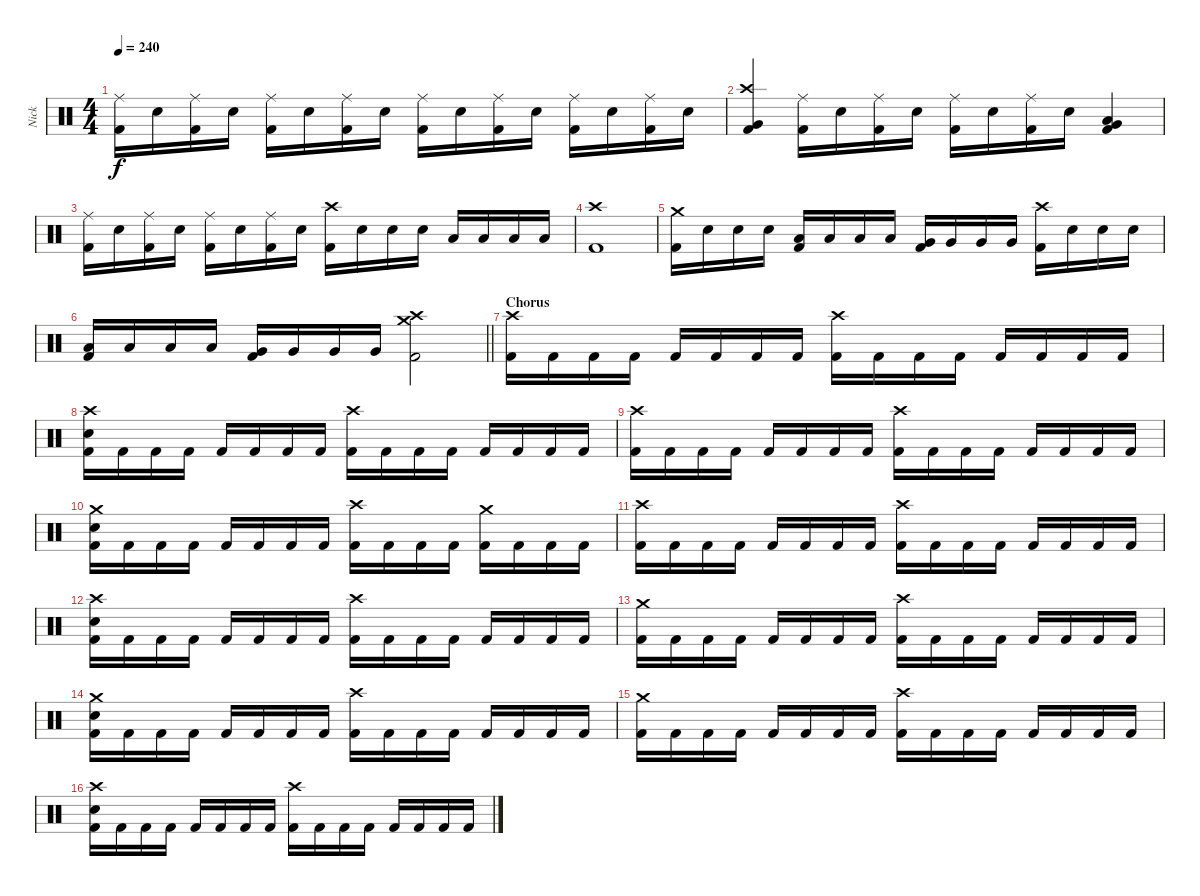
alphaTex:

\track ("Nick" "Nick") {instrument percussion}
\staff {score}
\articulation defaults
\ts (4 4)
\tempo 240
\clef neutral
\ks c
("Ride (middle)" "Kick (hit) 2").16{dy f} "Electric Snare (hit)".16 ("Ride (middle)" "Kick (hit) 2").16 "Electric Snare (hit)".16 ("Ride (middle)" "Kick (hit) 2").16 "Electric Snare (hit)".16 ("Ride (middle)" "Kick (hit) 2").16 "Electric Snare (hit)".16 ("Ride (middle)" "Kick (hit) 2").16 "Electric Snare (hit)".16 ("Ride (middle)" "Kick (hit) 2").16 "Electric Snare (hit)".16 ("Ride (middle)" "Kick (hit) 2").16 "Electric Snare (hit)".16 ("Ride (middle)" "Kick (hit) 2").16 "Electric Snare (hit)".16 |
("Crash high (hit)" "Very Low Tom (hit)" "Kick (hit) 2").4 ("Ride (middle)" "Kick (hit) 2").16 "Electric Snare (hit)".16 ("Ride (middle)" "Kick (hit) 2").16 "Electric Snare (hit)".16 ("Ride (middle)" "Kick (hit) 2").16 "Electric Snare (hit)".16 ("Ride (middle)" "Kick (hit) 2").16 "Electric Snare (hit)".16 ("Low Tom (hit)" "Very Low Tom (hit)" "Kick (hit) 2").4 |
("Ride (middle)" "Kick (hit) 2").16 "Electric Snare (hit)".16 ("Ride (middle)" "Kick (hit) 2").16 "Electric Snare (hit)".16 ("Ride (middle)" "Kick (hit) 2").16 "Electric Snare (hit)".16 ("Ride (middle)" "Kick (hit) 2").16 "Electric Snare (hit)".16 ("Crash high (hit)" "Kick (hit) 2").16 "Electric Snare (hit)".16 "Electric Snare (hit)".16 "Electric Snare (hit)".16 "Low Tom (hit)".16 "Low Tom (hit)".16 "Low Tom (hit)".16 "Low Tom (hit)".16 |
("Crash high (hit)" "Kick (hit) 2").1 |
("Crash medium (hit)" "Kick (hit) 2").16 "Electric Snare (hit)".16 "Electric Snare (hit)".16 "Electric Snare (hit)".16 ("Low Tom (hit)" "Kick (hit) 2").16 "Low Tom (hit)".16 "Low Tom (hit)".16 "Low Tom (hit)".16 ("Very Low Tom (hit)" "Kick (hit) 2").16 "Very Low Tom (hit)".16 "Very Low Tom (hit)".16 "Very Low Tom (hit)".16 ("Crash high (hit)" "Kick (hit) 2").16 "Electric Snare (hit)".16 "Electric Snare (hit)".16 "Electric Snare (hit)".16 |
\barLineRight lightlight
("Low Tom (hit)" "Kick (hit) 2").16 "Low Tom (hit)".16 "Low Tom (hit)".16 "Low Tom (hit)".16 ("Very Low Tom (hit)" "Kick (hit) 2").16 "Very Low Tom (hit)".16 "Very Low Tom (hit)".16 "Very Low Tom (hit)".16 ("Crash medium (hit)" "Crash high (hit)" "Kick (hit) 2").2 |
\section ("" "Chorus")
("Crash high (hit)" "Kick (hit) 2").16 "Kick (hit) 2".16 "Kick (hit) 2".16 "Kick (hit) 2".16 "Kick (hit) 2".16 "Kick (hit) 2".16 "Kick (hit) 2".16 "Kick (hit) 2".16 ("Crash high (hit)" "Kick (hit) 2").16 "Kick (hit) 2".16 "Kick (hit) 2".16 "Kick (hit) 2".16 "Kick (hit) 2".16 "Kick (hit) 2".16 "Kick (hit) 2".16 "Kick (hit) 2".16 |
("Crash high (hit)" "Electric Snare (hit)" "Kick (hit) 2").16 "Kick (hit) 2".16 "Kick (hit) 2".16 "Kick (hit) 2".16 "Kick (hit) 2".16 "Kick (hit) 2".16 "Kick (hit) 2".16 "Kick (hit) 2".16 ("Crash high (hit)" "Kick (hit) 2").16 "Kick (hit) 2".16 "Kick (hit) 2".16 "Kick (hit) 2".16 "Kick (hit) 2".16 "Kick (hit) 2".16 "Kick (hit) 2".16 "Kick (hit) 2".16 |
("Crash high (hit)" "Kick (hit) 2").16 "Kick (hit) 2".16 "Kick (hit) 2".16 "Kick (hit) 2".16 "Kick (hit) 2".16 "Kick (hit) 2".16 "Kick (hit) 2".16 "Kick (hit) 2".16 ("Crash high (hit)" "Kick (hit) 2").16 "Kick (hit) 2".16 "Kick (hit) 2".16 "Kick (hit) 2".16 "Kick (hit) 2".16 "Kick (hit) 2".16 "Kick (hit) 2".16 "Kick (hit) 2".16 |
("Crash medium (hit)" "Electric Snare (hit)" "Kick (hit) 2").16 "Kick (hit) 2".16 "Kick (hit) 2".16 "Kick (hit) 2".16 "Kick (hit) 2".16 "Kick (hit) 2".16 "Kick (hit) 2".16 "Kick (hit) 2".16 ("Crash high (hit)" "Kick (hit) 2").16 "Kick (hit) 2".16 "Kick (hit) 2".16 "Kick (hit) 2".16 ("Crash medium (hit)" "Kick (hit) 2").16 "Kick (hit) 2".16 "Kick (hit) 2".16 "Kick (hit) 2".16 |
("Crash high (hit)" "Kick (hit) 2").16 "Kick (hit) 2".16 "Kick (hit) 2".16 "Kick (hit) 2".16 "Kick (hit) 2".16 "Kick (hit) 2".16 "Kick (hit) 2".16 "Kick (hit) 2".16 ("Crash high (hit)" "Kick (hit) 2").16 "Kick (hit) 2".16 "Kick (hit) 2".16 "Kick (hit) 2".16 "Kick (hit) 2".16 "Kick (hit) 2".16 "Kick (hit) 2".16 "Kick (hit) 2".16 |
("Crash high (hit)" "Electric Snare (hit)" "Kick (hit) 2").16 "Kick (hit) 2".16 "Kick (hit) 2".16 "Kick (hit) 2".16 "Kick (hit) 2".16 "Kick (hit) 2".16 "Kick (hit) 2".16 "Kick (hit) 2".16 ("Crash high (hit)" "Kick (hit) 2").16 "Kick (hit) 2".16 "Kick (hit) 2".16 "Kick (hit) 2".16 "Kick (hit) 2".16 "Kick (hit) 2".16 "Kick (hit) 2".16 "Kick (hit) 2".16 |
("Crash medium (hit)" "Kick (hit) 2").16 "Kick (hit) 2".16 "Kick (hit) 2".16 "Kick (hit) 2".16 "Kick (hit) 2".16 "Kick (hit) 2".16 "Kick (hit) 2".16 "Kick (hit) 2".16 ("Crash high (hit)" "Kick (hit) 2").16 "Kick (hit) 2".16 "Kick (hit) 2".16 "Kick (hit) 2".16 "Kick (hit) 2".16 "Kick (hit) 2".16 "Kick (hit) 2".16 "Kick (hit) 2".16 |
("Crash medium (hit)" "Electric Snare (hit)" "Kick (hit) 2").16 "Kick (hit) 2".16 "Kick (hit) 2".16 "Kick (hit) 2".16 "Kick (hit) 2".16 "Kick (hit) 2".16 "Kick (hit) 2".16 "Kick (hit) 2".16 ("Crash high (hit)" "Kick (hit) 2").16 "Kick (hit) 2".16 "Kick (hit) 2".16 "Kick (hit) 2".16 "Kick (hit) 2".16 "Kick (hit) 2".16 "Kick (hit) 2".16 "Kick (hit) 2".16 |
("Crash medium (hit)" "Kick (hit) 2").16 "Kick (hit) 2".16 "Kick (hit) 2".16 "Kick (hit) 2".16 "Kick (hit) 2".16 "Kick (hit) 2".16 "Kick (hit) 2".16 "Kick (hit) 2".16 ("Crash high (hit)" "Kick (hit) 2").16 "Kick (hit) 2".16 "Kick (hit) 2".16 "Kick (hit) 2".16 "Kick (hit) 2".16 "Kick (hit) 2".16 "Kick (hit) 2".16 "Kick (hit) 2".16 |
("Crash high (hit)" "Electric Snare (hit)" "Kick (hit) 2").16 "Kick (hit) 2".16 "Kick (hit) 2".16 "Kick (hit) 2".16 "Kick (hit) 2".16 "Kick (hit) 2".16 "Kick (hit) 2".16 "Kick (hit) 2".16 ("Crash high (hit)" "Kick (hit) 2").16 "Kick (hit) 2".16 "Kick (hit) 2".16 "Kick (hit) 2".16 "Kick (hit) 2".16 "Kick (hit) 2".16 "Kick (hit) 2".16 "Kick (hit) 2".16
